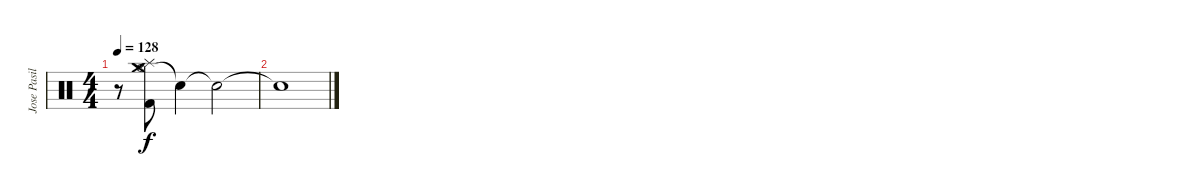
\track ("Jose Pasillas" "Jose Pasil") {instrument percussion}
\staff {score}
\articulation defaults
\ts (4 4)
\tempo 128
\clef neutral
\ks c
r.8{dy f} ("Hi-Hat (open)" "Crash medium (hit)" "Splash (hit)" "Kick (hit) 2").8 "Snare (hit)"{t}.4 "Snare (hit)"{t}.2 |
"Snare (hit)"{t}.1
